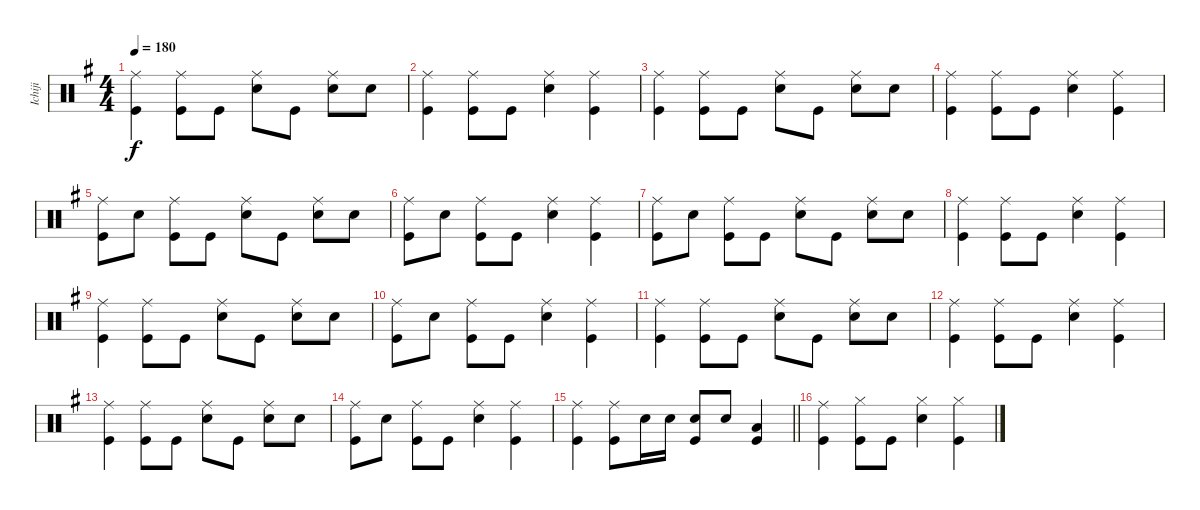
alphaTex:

\track ("Ichiji" "Ichiji") {instrument percussion}
\staff {score}
\articulation defaults
\ts (4 4)
\tempo 180
\clef neutral
\ks g
("Ride (middle)" "Kick (hit)").4{dy f} ("Ride (middle)" "Kick (hit)").8 "Kick (hit)".8 ("Ride (middle)" "Snare (hit) 2").8 "Kick (hit)".8 ("Ride (middle)" "Snare (hit) 2").8 "Snare (hit) 2".8 |
("Ride (middle)" "Kick (hit)").4 ("Ride (middle)" "Kick (hit)").8 "Kick (hit)".8 ("Ride (middle)" "Snare (hit) 2").4 ("Ride (middle)" "Kick (hit)").4 |
("Ride (middle)" "Kick (hit)").4 ("Ride (middle)" "Kick (hit)").8 "Kick (hit)".8 ("Ride (middle)" "Snare (hit) 2").8 "Kick (hit)".8 ("Ride (middle)" "Snare (hit) 2").8 "Snare (hit) 2".8 |
("Ride (middle)" "Kick (hit)").4 ("Ride (middle)" "Kick (hit)").8 "Kick (hit)".8 ("Ride (middle)" "Snare (hit) 2").4 ("Ride (middle)" "Kick (hit)").4 |
("Ride (middle)" "Kick (hit)").8 "Snare (hit) 2".8 ("Ride (middle)" "Kick (hit)").8 "Kick (hit)".8 ("Ride (middle)" "Snare (hit) 2").8 "Kick (hit)".8 ("Ride (middle)" "Snare (hit) 2").8 "Snare (hit) 2".8 |
("Ride (middle)" "Kick (hit)").8 "Snare (hit) 2".8 ("Ride (middle)" "Kick (hit)").8 "Kick (hit)".8 ("Ride (middle)" "Snare (hit) 2").4 ("Ride (middle)" "Kick (hit)").4 |
("Ride (middle)" "Kick (hit)").8 "Snare (hit) 2".8 ("Ride (middle)" "Kick (hit)").8 "Kick (hit)".8 ("Ride (middle)" "Snare (hit) 2").8 "Kick (hit)".8 ("Ride (middle)" "Snare (hit) 2").8 "Snare (hit) 2".8 |
("Ride (middle)" "Kick (hit)").4 ("Ride (middle)" "Kick (hit)").8 "Kick (hit)".8 ("Ride (middle)" "Snare (hit) 2").4 ("Ride (middle)" "Kick (hit)").4 |
("Ride (middle)" "Kick (hit)").4 ("Ride (middle)" "Kick (hit)").8 "Kick (hit)".8 ("Ride (middle)" "Snare (hit) 2").8 "Kick (hit)".8 ("Ride (middle)" "Snare (hit) 2").8 "Snare (hit) 2".8 |
("Ride (middle)" "Kick (hit)").8 "Snare (hit) 2".8 ("Ride (middle)" "Kick (hit)").8 "Kick (hit)".8 ("Ride (middle)" "Snare (hit) 2").4 ("Ride (middle)" "Kick (hit)").4 |
("Ride (middle)" "Kick (hit)").4 ("Ride (middle)" "Kick (hit)").8 "Kick (hit)".8 ("Ride (middle)" "Snare (hit) 2").8 "Kick (hit)".8 ("Ride (middle)" "Snare (hit) 2").8 "Snare (hit) 2".8 |
("Ride (middle)" "Kick (hit)").4 ("Ride (middle)" "Kick (hit)").8 "Kick (hit)".8 ("Ride (middle)" "Snare (hit) 2").4 ("Ride (middle)" "Kick (hit)").4 |
("Ride (middle)" "Kick (hit)").4 ("Ride (middle)" "Kick (hit)").8 "Kick (hit)".8 ("Ride (middle)" "Snare (hit) 2").8 "Kick (hit)".8 ("Ride (middle)" "Snare (hit) 2").8 "Snare (hit) 2".8 |
("Ride (middle)" "Kick (hit)").8 "Snare (hit) 2".8 ("Ride (middle)" "Kick (hit)").8 "Kick (hit)".8 ("Ride (middle)" "Snare (hit) 2").4 ("Ride (middle)" "Kick (hit)").4 |
\barLineRight lightlight
("Ride (middle)" "Kick (hit)").4 ("Ride (middle)" "Kick (hit)").8 "Snare (hit) 2".16 "Snare (hit) 2".16 ("Snare (hit) 2" "Kick (hit)").8 "Snare (hit) 2".8 ("Low Tom (hit)" "Kick (hit)").4 |
("Ride (middle)" "Kick (hit)").4 ("Hi-Hat (closed)" "Kick (hit)").8 "Kick (hit)".8 ("Hi-Hat (closed)" "Snare (hit) 2").4 ("Hi-Hat (closed)" "Kick (hit)").4
